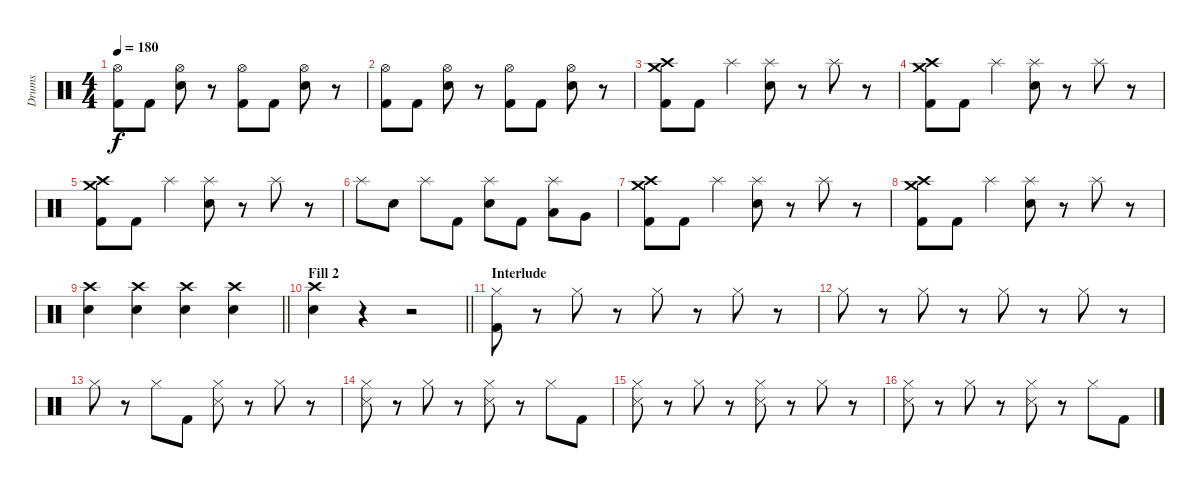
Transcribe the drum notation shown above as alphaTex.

\track ("Drums" "Drums") {instrument percussion}
\staff {score}
\articulation defaults
\ts (4 4)
\tempo 180
\clef neutral
\ks c
("Hi-Hat (open)" "Kick (hit) 2").8{dy f} "Kick (hit) 2".8 ("Hi-Hat (open)" "Snare (hit) 2").8 r.8 ("Hi-Hat (open)" "Kick (hit) 2").8 "Kick (hit) 2".8 ("Hi-Hat (open)" "Snare (hit) 2").8 r.8 |
("Hi-Hat (open)" "Kick (hit) 2").8 "Kick (hit) 2".8 ("Hi-Hat (open)" "Snare (hit) 2").8 r.8 ("Hi-Hat (open)" "Kick (hit) 2").8 "Kick (hit) 2".8 ("Hi-Hat (open)" "Snare (hit) 2").8 r.8 |
("Crash medium (hit)" "Crash high (hit)" "Kick (hit) 2").8 "Kick (hit) 2".8 "Splash (hit)".4 ("Splash (hit)" "Snare (hit) 2").8 r.8 "Splash (hit)".8 r.8 |
("Crash medium (hit)" "Crash high (hit)" "Kick (hit) 2").8 "Kick (hit) 2".8 "Splash (hit)".4 ("Splash (hit)" "Snare (hit) 2").8 r.8 "Splash (hit)".8 r.8 |
("Crash medium (hit)" "Crash high (hit)" "Kick (hit) 2").8 "Kick (hit) 2".8 "Splash (hit)".4 ("Splash (hit)" "Snare (hit) 2").8 r.8 "Splash (hit)".8 r.8 |
"Splash (hit)".8 "Snare (hit) 2".8 "Splash (hit)".8 "Kick (hit) 2".8 ("Splash (hit)" "Snare (hit) 2").8 "Kick (hit) 2".8 ("Splash (hit)" "Low Tom (hit)").8 "Very Low Tom (hit)".8 |
("Crash medium (hit)" "Crash high (hit)" "Kick (hit) 2").8 "Kick (hit) 2".8 "Splash (hit)".4 ("Splash (hit)" "Snare (hit) 2").8 r.8 "Splash (hit)".8 r.8 |
("Crash medium (hit)" "Crash high (hit)" "Kick (hit) 2").8 "Kick (hit) 2".8 "Splash (hit)".4 ("Splash (hit)" "Snare (hit) 2").8 r.8 "Splash (hit)".8 r.8 |
\barLineRight lightlight
("Crash high (hit)" "Snare (hit) 2").4 ("Crash high (hit)" "Snare (hit) 2").4 ("Crash high (hit)" "Snare (hit) 2").4 ("Crash high (hit)" "Snare (hit) 2").4 |
\section ("" "Fill 2")
\barLineRight lightlight
("Crash high (hit)" "Snare (hit) 2").4 r.4 r.2 |
\section ("" "Interlude")
("Hi-Hat (closed)" "Kick (hit) 2").8 r.8 "Hi-Hat (closed)".8 r.8 "Hi-Hat (closed)".8 r.8 "Hi-Hat (closed)".8 r.8 |
"Hi-Hat (closed)".8 r.8 "Hi-Hat (closed)".8 r.8 "Hi-Hat (closed)".8 r.8 "Hi-Hat (closed)".8 r.8 |
"Hi-Hat (closed)".8 r.8 "Hi-Hat (closed)".8 "Kick (hit) 2".8 ("Hi-Hat (closed)" "Snare (side stick) 3").8 r.8 "Hi-Hat (closed)".8 r.8 |
("Hi-Hat (closed)" "Snare (side stick) 3").8 r.8 "Hi-Hat (closed)".8 r.8 ("Hi-Hat (closed)" "Snare (side stick) 3").8 r.8 "Hi-Hat (closed)".8 "Kick (hit) 2".8 |
("Hi-Hat (closed)" "Snare (side stick) 3").8 r.8 "Hi-Hat (closed)".8 r.8 ("Hi-Hat (closed)" "Snare (side stick) 3").8 r.8 "Hi-Hat (closed)".8 r.8 |
("Hi-Hat (closed)" "Snare (side stick) 3").8 r.8 "Hi-Hat (closed)".8 r.8 ("Hi-Hat (closed)" "Snare (side stick) 3").8 r.8 "Hi-Hat (closed)".8 "Kick (hit) 2".8
